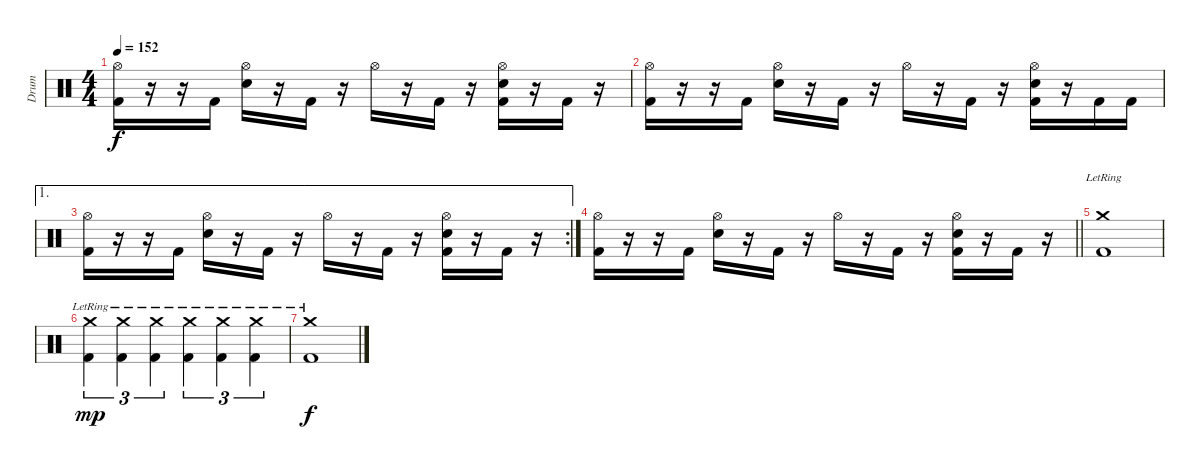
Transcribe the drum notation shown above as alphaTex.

\track ("Drum" "Drum") {instrument percussion}
\staff {score}
\articulation defaults
\ts (4 4)
\tempo 152
\clef neutral
\ks c
("Hi-Hat (open)" "Kick (hit) 2").16{dy f} r.16 r.16 "Kick (hit) 2".16 ("Hi-Hat (open)" "Electric Snare (hit)").16 r.16 "Kick (hit) 2".16 r.16 "Hi-Hat (open)".16 r.16 "Kick (hit) 2".16 r.16 ("Hi-Hat (open)" "Electric Snare (hit)" "Kick (hit) 2").16 r.16 "Kick (hit) 2".16 r.16 |
("Hi-Hat (open)" "Kick (hit) 2").16 r.16 r.16 "Kick (hit) 2".16 ("Hi-Hat (open)" "Electric Snare (hit)").16 r.16 "Kick (hit) 2".16 r.16 "Hi-Hat (open)".16 r.16 "Kick (hit) 2".16 r.16 ("Hi-Hat (open)" "Electric Snare (hit)" "Kick (hit) 2").16 r.16 "Kick (hit) 2".16 "Kick (hit) 2".16 |
\ae 1
\rc 2
("Hi-Hat (open)" "Kick (hit) 2").16 r.16 r.16 "Kick (hit) 2".16 ("Hi-Hat (open)" "Electric Snare (hit)").16 r.16 "Kick (hit) 2".16 r.16 "Hi-Hat (open)".16 r.16 "Kick (hit) 2".16 r.16 ("Hi-Hat (open)" "Electric Snare (hit)" "Kick (hit) 2").16 r.16 "Kick (hit) 2".16 r.16 |
\barLineRight lightlight
("Hi-Hat (open)" "Kick (hit) 2").16 r.16 r.16 "Kick (hit) 2".16 ("Hi-Hat (open)" "Electric Snare (hit)").16 r.16 "Kick (hit) 2".16 r.16 "Hi-Hat (open)".16 r.16 "Kick (hit) 2".16 r.16 ("Hi-Hat (open)" "Electric Snare (hit)" "Kick (hit) 2").16 r.16 "Kick (hit) 2".16 r.16 |
("Crash medium (hit)"{lr} "Kick (hit) 2").1{volume 8} |
("Crash medium (hit)"{lr} "Kick (hit) 2").4{tu (3 2) dy mp} ("Crash medium (hit)"{lr} "Kick (hit) 2").4{tu (3 2)} ("Crash medium (hit)"{lr} "Kick (hit) 2").4{tu (3 2)} ("Crash medium (hit)"{lr} "Kick (hit) 2").4{tu (3 2)} ("Crash medium (hit)"{lr} "Kick (hit) 2").4{tu (3 2)} ("Crash medium (hit)"{lr} "Kick (hit) 2").4{tu (3 2)} |
("Crash medium (hit)"{lr} "Kick (hit) 2").1{dy f}
